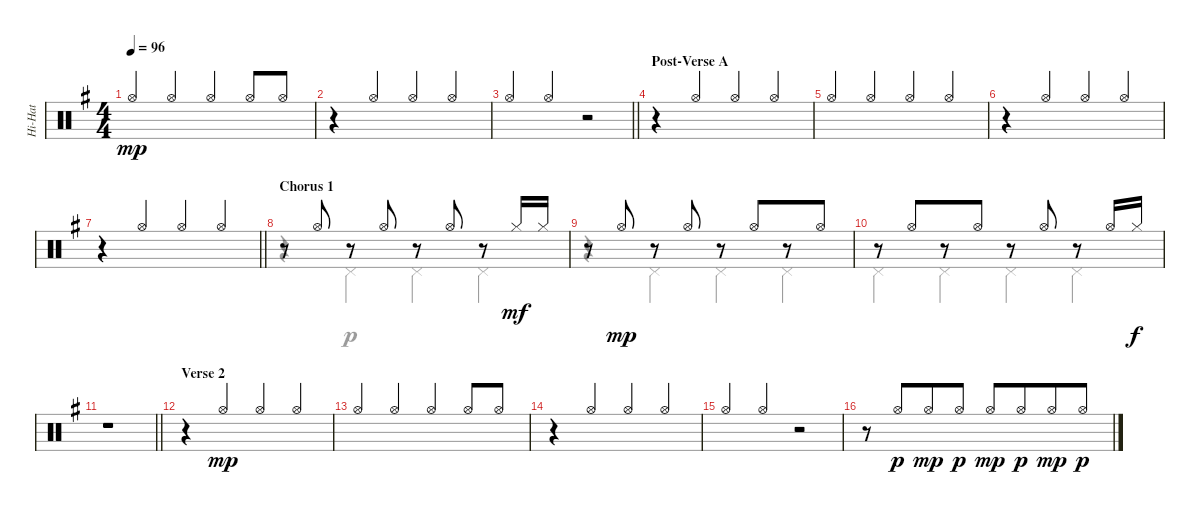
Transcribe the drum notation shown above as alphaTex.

\track ("Hi-Hat" "Hi-Hat") {instrument percussion}
\staff {score}
\articulation defaults
\voice
\ts (4 4)
\tempo 96
\clef neutral
\ks g "Hi-Hat (open)".4{dy mp beam Up} "Hi-Hat (open)".4{beam Up} "Hi-Hat (open)".4{beam Up} "Hi-Hat (open)".8{beam Up} "Hi-Hat (open)".8{beam Up}
|
r.4 "Hi-Hat (open)".4{beam Up} "Hi-Hat (open)".4{beam Up} "Hi-Hat (open)".4{beam Up} |
\barLineRight lightlight "Hi-Hat (open)".4{beam Up} "Hi-Hat (open)".4{beam Up}
r.2 |
\section ("" "Post-Verse A")
r.4 "Hi-Hat (open)".4{beam Up} "Hi-Hat (open)".4{beam Up} "Hi-Hat (open)".4{beam Up} |
"Hi-Hat (open)".4{beam Up} "Hi-Hat (open)".4{beam Up} "Hi-Hat (open)".4{beam Up} "Hi-Hat (open)".4{beam Up} |
r.4 "Hi-Hat (open)".4{beam Up} "Hi-Hat (open)".4{beam Up} "Hi-Hat (open)".4{beam Up} |
\barLineRight lightlight
r.4 "Hi-Hat (open)".4{beam Up} "Hi-Hat (open)".4{beam Up} "Hi-Hat (open)".4{beam Up} |
\section ("" "Chorus 1")
r.8 "Hi-Hat (open)".8{beam split} r.8 "Hi-Hat (open)".8 r.8 "Hi-Hat (open)".8 r.8 "Hi-Hat (closed)".16{dy mf} "Hi-Hat (closed)".16 |
r.8 "Hi-Hat (open)".8{dy mp} r.8 "Hi-Hat (open)".8 r.8 "Hi-Hat (open)".8{beam merge} r.8 "Hi-Hat (open)".8 |
r.8 "Hi-Hat (open)".8{beam merge} r.8 "Hi-Hat (open)".8 r.8 "Hi-Hat (open)".8 r.8 "Hi-Hat (open)".16 "Hi-Hat (closed)".16{dy f} |
\barLineRight lightlight
r.1 |
\section ("" "Verse 2")
r.4 "Hi-Hat (open)".4{dy mp beam Up} "Hi-Hat (open)".4{beam Up} "Hi-Hat (open)".4{beam Up} |
"Hi-Hat (open)".4{beam Up} "Hi-Hat (open)".4{beam Up} "Hi-Hat (open)".4{beam Up} "Hi-Hat (open)".8{beam Up} "Hi-Hat (open)".8{beam Up} |
r.4 "Hi-Hat (open)".4{beam Up} "Hi-Hat (open)".4{beam Up} "Hi-Hat (open)".4{beam Up} |
"Hi-Hat (open)".4{beam Up} "Hi-Hat (open)".4{beam Up} r.2 |
r.8{beam Up} "Hi-Hat (open)".8{dy p beam Up beam merge} "Hi-Hat (open)".8{dy mp beam Up} "Hi-Hat (open)".8{dy p beam Up} "Hi-Hat (open)".8{dy mp beam Up} "Hi-Hat (open)".8{dy p beam Up beam merge} "Hi-Hat (open)".8{dy mp beam Up} "Hi-Hat (open)".8{dy p beam Up}
\voice
\clef neutral
\ottava regular
\simile none
\ks g
|
|
\barLineRight lightlight
|
|
|
|
\barLineRight lightlight
|
r.4 "Pedal Hi-Hat (hit)".4 "Pedal Hi-Hat (hit)".4 "Pedal Hi-Hat (hit)".4 |
r.4 "Pedal Hi-Hat (hit)".4 "Pedal Hi-Hat (hit)".4 "Pedal Hi-Hat (hit)".4 |
"Pedal Hi-Hat (hit)".4 "Pedal Hi-Hat (hit)".4 "Pedal Hi-Hat (hit)".4 "Pedal Hi-Hat (hit)".4 |
\barLineRight lightlight
|
|
|
|
|
